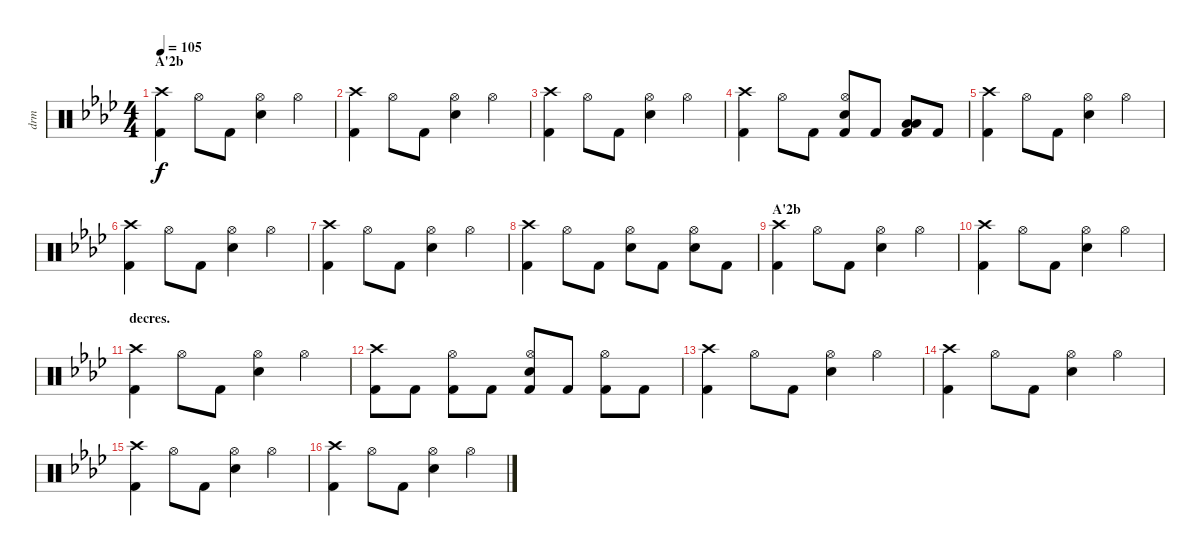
\track ("drm" "drm") {instrument percussion}
\staff {score}
\articulation defaults
\ts (4 4)
\section ("" "A'2b")
\tempo 105
\clef neutral
\ks ab
("Crash high (hit)" "Kick (hit) 2").4{dy f} "Hi-Hat (open)".8 "Kick (hit) 2".8 ("Hi-Hat (open)" "Electric Snare (hit)").4 "Hi-Hat (open)".4 |
("Crash high (hit)" "Kick (hit) 2").4 "Hi-Hat (open)".8 "Kick (hit) 2".8 ("Hi-Hat (open)" "Electric Snare (hit)").4 "Hi-Hat (open)".4 |
("Crash high (hit)" "Kick (hit) 2").4 "Hi-Hat (open)".8 "Kick (hit) 2".8 ("Hi-Hat (open)" "Electric Snare (hit)").4 "Hi-Hat (open)".4 |
("Crash high (hit)" "Kick (hit) 2").4 "Hi-Hat (open)".8 "Kick (hit) 2".8 ("Hi-Hat (open)" "Electric Snare (hit)" "Kick (hit) 2").8 "Kick (hit) 2".8 ("Low Tom (hit)" "Low Tom (hit)" "Kick (hit) 2").8 "Kick (hit) 2".8 |
("Crash high (hit)" "Kick (hit) 2").4 "Hi-Hat (open)".8 "Kick (hit) 2".8 ("Hi-Hat (open)" "Electric Snare (hit)").4 "Hi-Hat (open)".4 |
("Crash high (hit)" "Kick (hit) 2").4 "Hi-Hat (open)".8 "Kick (hit) 2".8 ("Hi-Hat (open)" "Electric Snare (hit)").4 "Hi-Hat (open)".4 |
("Crash high (hit)" "Kick (hit) 2").4 "Hi-Hat (open)".8 "Kick (hit) 2".8 ("Hi-Hat (open)" "Electric Snare (hit)").4 "Hi-Hat (open)".4 |
("Crash high (hit)" "Kick (hit) 2").4 "Hi-Hat (open)".8 "Kick (hit) 2".8 ("Hi-Hat (open)" "Electric Snare (hit)").8 "Kick (hit) 2".8 ("Hi-Hat (open)" "Electric Snare (hit)").8 "Kick (hit) 2".8 |
\section ("" "A'2b")
("Crash high (hit)" "Kick (hit) 2").4 "Hi-Hat (open)".8 "Kick (hit) 2".8 ("Hi-Hat (open)" "Electric Snare (hit)").4 "Hi-Hat (open)".4 |
("Crash high (hit)" "Kick (hit) 2").4 "Hi-Hat (open)".8 "Kick (hit) 2".8 ("Hi-Hat (open)" "Electric Snare (hit)").4{volume 11} "Hi-Hat (open)".4 |
\section ("" "decres.")
("Crash high (hit)" "Kick (hit) 2").4 "Hi-Hat (open)".8 "Kick (hit) 2".8 ("Hi-Hat (open)" "Electric Snare (hit)").4 "Hi-Hat (open)".4 |
("Crash high (hit)" "Kick (hit) 2").8 "Kick (hit) 2".8 ("Hi-Hat (open)" "Kick (hit) 2").8 "Kick (hit) 2".8 ("Hi-Hat (open)" "Electric Snare (hit)" "Kick (hit) 2").8 "Kick (hit) 2".8 ("Hi-Hat (open)" "Kick (hit) 2").8 "Kick (hit) 2".8 |
("Crash high (hit)" "Kick (hit) 2").4 "Hi-Hat (open)".8 "Kick (hit) 2".8 ("Hi-Hat (open)" "Electric Snare (hit)").4 "Hi-Hat (open)".4 |
\section ("" "")
("Crash high (hit)" "Kick (hit) 2").4{volume 3} "Hi-Hat (open)".8 "Kick (hit) 2".8 ("Hi-Hat (open)" "Electric Snare (hit)").4 "Hi-Hat (open)".4 |
("Crash high (hit)" "Kick (hit) 2").4 "Hi-Hat (open)".8 "Kick (hit) 2".8 ("Hi-Hat (open)" "Electric Snare (hit)").4 "Hi-Hat (open)".4 |
("Crash high (hit)" "Kick (hit) 2").4 "Hi-Hat (open)".8 "Kick (hit) 2".8 ("Hi-Hat (open)" "Electric Snare (hit)").4 "Hi-Hat (open)".4
